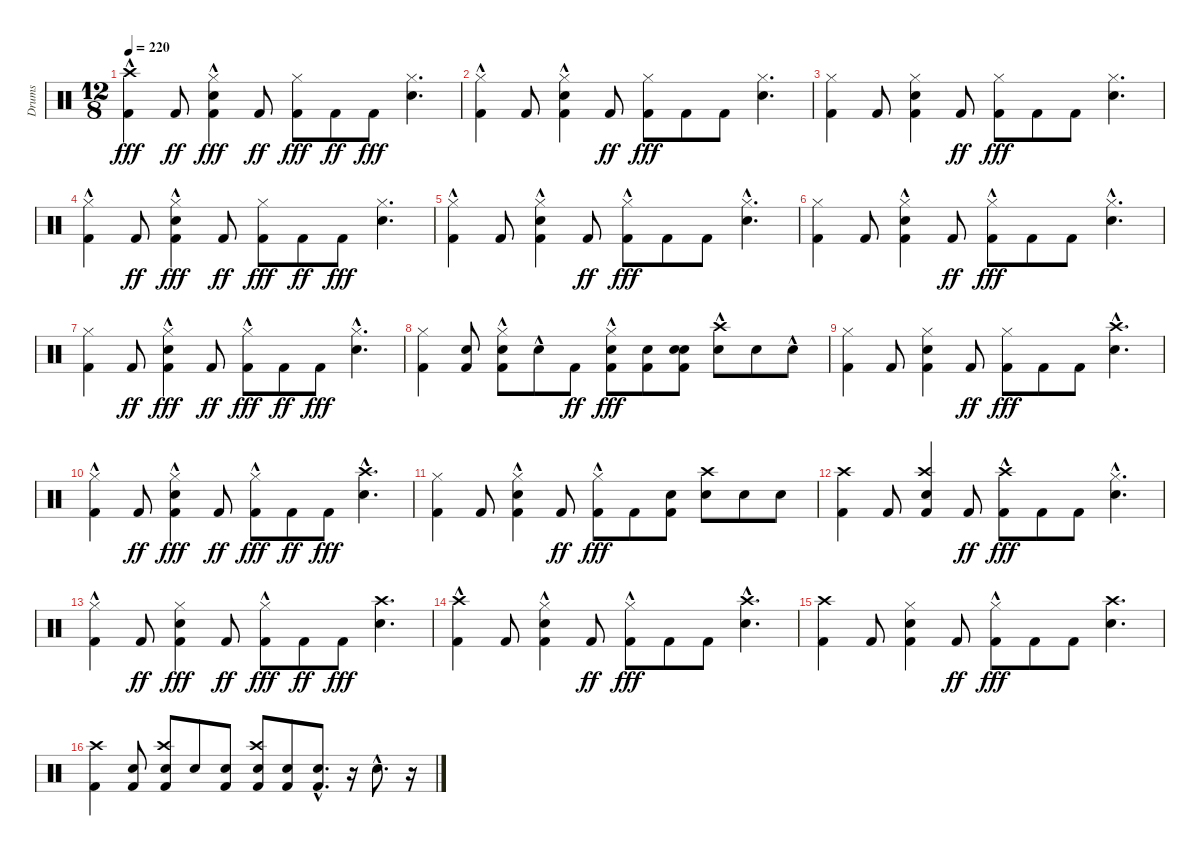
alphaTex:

\track ("Drums" "Drums") {instrument percussion}
\staff {score}
\articulation defaults
\ts (12 8)
\tempo 220
\clef neutral
\ks c
("Kick (hit) 2" "Crash high (hit)"{hac}).4{dy fff} "Kick (hit) 2".8{dy ff} ("Kick (hit) 2" "Snare (hit) 2" "Hi-Hat (closed)"{hac}).4{dy fff} "Kick (hit) 2".8{dy ff} ("Kick (hit) 2" "Hi-Hat (closed)").8{dy fff} "Kick (hit) 2".8{dy ff} "Kick (hit) 2".8{dy fff} ("Snare (hit) 2" "Hi-Hat (closed)").4{d} |
("Kick (hit) 2" "Hi-Hat (closed)"{hac}).4 "Kick (hit) 2".8 ("Kick (hit) 2" "Snare (hit) 2" "Hi-Hat (closed)"{hac}).4 "Kick (hit) 2".8{dy ff} ("Kick (hit) 2" "Hi-Hat (closed)").8{dy fff} "Kick (hit) 2".8 "Kick (hit) 2".8 ("Snare (hit) 2" "Hi-Hat (closed)").4{d} |
("Kick (hit) 2" "Hi-Hat (closed)").4 "Kick (hit) 2".8 ("Kick (hit) 2" "Snare (hit) 2" "Hi-Hat (closed)").4 "Kick (hit) 2".8{dy ff} ("Kick (hit) 2" "Hi-Hat (closed)").8{dy fff} "Kick (hit) 2".8 "Kick (hit) 2".8 ("Snare (hit) 2" "Hi-Hat (closed)").4{d} |
("Kick (hit) 2" "Hi-Hat (closed)"{hac}).4 "Kick (hit) 2".8{dy ff} ("Kick (hit) 2" "Snare (hit) 2" "Hi-Hat (closed)"{hac}).4{dy fff} "Kick (hit) 2".8{dy ff} ("Kick (hit) 2" "Hi-Hat (closed)").8{dy fff} "Kick (hit) 2".8{dy ff} "Kick (hit) 2".8{dy fff} ("Snare (hit) 2" "Hi-Hat (closed)").4{d} |
("Kick (hit) 2" "Hi-Hat (closed)"{hac}).4 "Kick (hit) 2".8 ("Kick (hit) 2" "Snare (hit) 2" "Hi-Hat (closed)"{hac}).4 "Kick (hit) 2".8{dy ff} ("Kick (hit) 2" "Hi-Hat (closed)"{hac}).8{dy fff} "Kick (hit) 2".8 "Kick (hit) 2".8 ("Snare (hit) 2" "Hi-Hat (closed)"{hac}).4{d} |
("Kick (hit) 2" "Hi-Hat (closed)").4 "Kick (hit) 2".8 ("Kick (hit) 2" "Snare (hit) 2" "Hi-Hat (closed)"{hac}).4 "Kick (hit) 2".8{dy ff} ("Kick (hit) 2" "Hi-Hat (closed)"{hac}).8{dy fff} "Kick (hit) 2".8 "Kick (hit) 2".8 ("Snare (hit) 2" "Hi-Hat (closed)"{hac}).4{d} |
("Kick (hit) 2" "Hi-Hat (closed)").4 "Kick (hit) 2".8{dy ff} ("Kick (hit) 2" "Snare (hit) 2" "Hi-Hat (closed)"{hac}).4{dy fff} "Kick (hit) 2".8{dy ff} ("Kick (hit) 2" "Hi-Hat (closed)"{hac}).8{dy fff} "Kick (hit) 2".8{dy ff} "Kick (hit) 2".8{dy fff} ("Snare (hit) 2" "Hi-Hat (closed)"{hac}).4{d} |
("Kick (hit) 2" "Hi-Hat (closed)").4 ("Kick (hit) 2" "Snare (hit) 2").8 ("Kick (hit) 2" "Snare (hit) 2" "Hi-Hat (closed)"{hac}).8 "Snare (hit) 2"{hac}.8 "Kick (hit) 2".8{dy ff} ("Kick (hit) 2" "Snare (hit) 2" "Hi-Hat (closed)"{hac}).8{dy fff} ("Kick (hit) 2" "Snare (hit) 2").8 ("Kick (hit) 2" "Snare (hit) 2" "Snare (hit) 2").8 ("Snare (hit) 2" "Crash high (hit)"{hac}).8 "Snare (hit) 2".8 "Snare (hit) 2"{hac}.8 |
("Kick (hit) 2" "Hi-Hat (closed)").4 "Kick (hit) 2".8 ("Kick (hit) 2" "Snare (hit) 2" "Hi-Hat (closed)").4 "Kick (hit) 2".8{dy ff} ("Kick (hit) 2" "Hi-Hat (closed)").8{dy fff} "Kick (hit) 2".8 "Kick (hit) 2".8 ("Snare (hit) 2" "Crash high (hit)"{hac}).4{d} |
("Kick (hit) 2" "Hi-Hat (closed)"{hac}).4 "Kick (hit) 2".8{dy ff} ("Kick (hit) 2" "Snare (hit) 2" "Hi-Hat (closed)"{hac}).4{dy fff} "Kick (hit) 2".8{dy ff} ("Kick (hit) 2" "Hi-Hat (closed)"{hac}).8{dy fff} "Kick (hit) 2".8{dy ff} "Kick (hit) 2".8{dy fff} ("Snare (hit) 2" "Crash high (hit)"{hac}).4{d} |
("Kick (hit) 2" "Hi-Hat (closed)").4 "Kick (hit) 2".8 ("Kick (hit) 2" "Snare (hit) 2" "Hi-Hat (closed)"{hac}).4 "Kick (hit) 2".8{dy ff} ("Kick (hit) 2" "Hi-Hat (closed)"{hac}).8{dy fff} "Kick (hit) 2".8 ("Kick (hit) 2" "Snare (hit) 2").8 ("Snare (hit) 2" "Crash high (hit)").8 "Snare (hit) 2".8 "Snare (hit) 2".8 |
("Kick (hit) 2" "Crash high (hit)").4 "Kick (hit) 2".8 ("Kick (hit) 2" "Snare (hit) 2" "Crash high (hit)").4 "Kick (hit) 2".8{dy ff} ("Kick (hit) 2" "Crash high (hit)"{hac}).8{dy fff} "Kick (hit) 2".8 "Kick (hit) 2".8 ("Snare (hit) 2" "Hi-Hat (closed)"{hac}).4{d} |
("Kick (hit) 2" "Hi-Hat (closed)"{hac}).4 "Kick (hit) 2".8{dy ff} ("Kick (hit) 2" "Snare (hit) 2" "Hi-Hat (closed)").4{dy fff} "Kick (hit) 2".8{dy ff} ("Kick (hit) 2" "Hi-Hat (closed)"{hac}).8{dy fff} "Kick (hit) 2".8{dy ff} "Kick (hit) 2".8{dy fff} ("Snare (hit) 2" "Crash high (hit)").4{d} |
("Kick (hit) 2" "Crash high (hit)"{hac}).4 "Kick (hit) 2".8 ("Kick (hit) 2" "Snare (hit) 2" "Hi-Hat (closed)"{hac}).4 "Kick (hit) 2".8{dy ff} ("Kick (hit) 2" "Hi-Hat (closed)"{hac}).8{dy fff} "Kick (hit) 2".8 "Kick (hit) 2".8 ("Snare (hit) 2" "Crash high (hit)"{hac}).4{d} |
("Kick (hit) 2" "Crash high (hit)").4 "Kick (hit) 2".8 ("Kick (hit) 2" "Snare (hit) 2" "Hi-Hat (closed)").4 "Kick (hit) 2".8{dy ff} ("Kick (hit) 2" "Hi-Hat (closed)"{hac}).8{dy fff} "Kick (hit) 2".8 "Kick (hit) 2".8 ("Snare (hit) 2" "Crash high (hit)").4{d} |
("Kick (hit) 2" "Crash high (hit)").4 ("Kick (hit) 2" "Snare (hit) 2").8 ("Kick (hit) 2" "Snare (hit) 2" "Crash high (hit)").8 "Snare (hit) 2".8 ("Kick (hit) 2" "Snare (hit) 2").8 ("Kick (hit) 2" "Snare (hit) 2" "Crash high (hit)").8 ("Kick (hit) 2" "Snare (hit) 2").8 ("Kick (hit) 2" "Snare (hit) 2"{hac}).8{d} r.16 "Snare (hit) 2"{hac}.8{d} r.16
